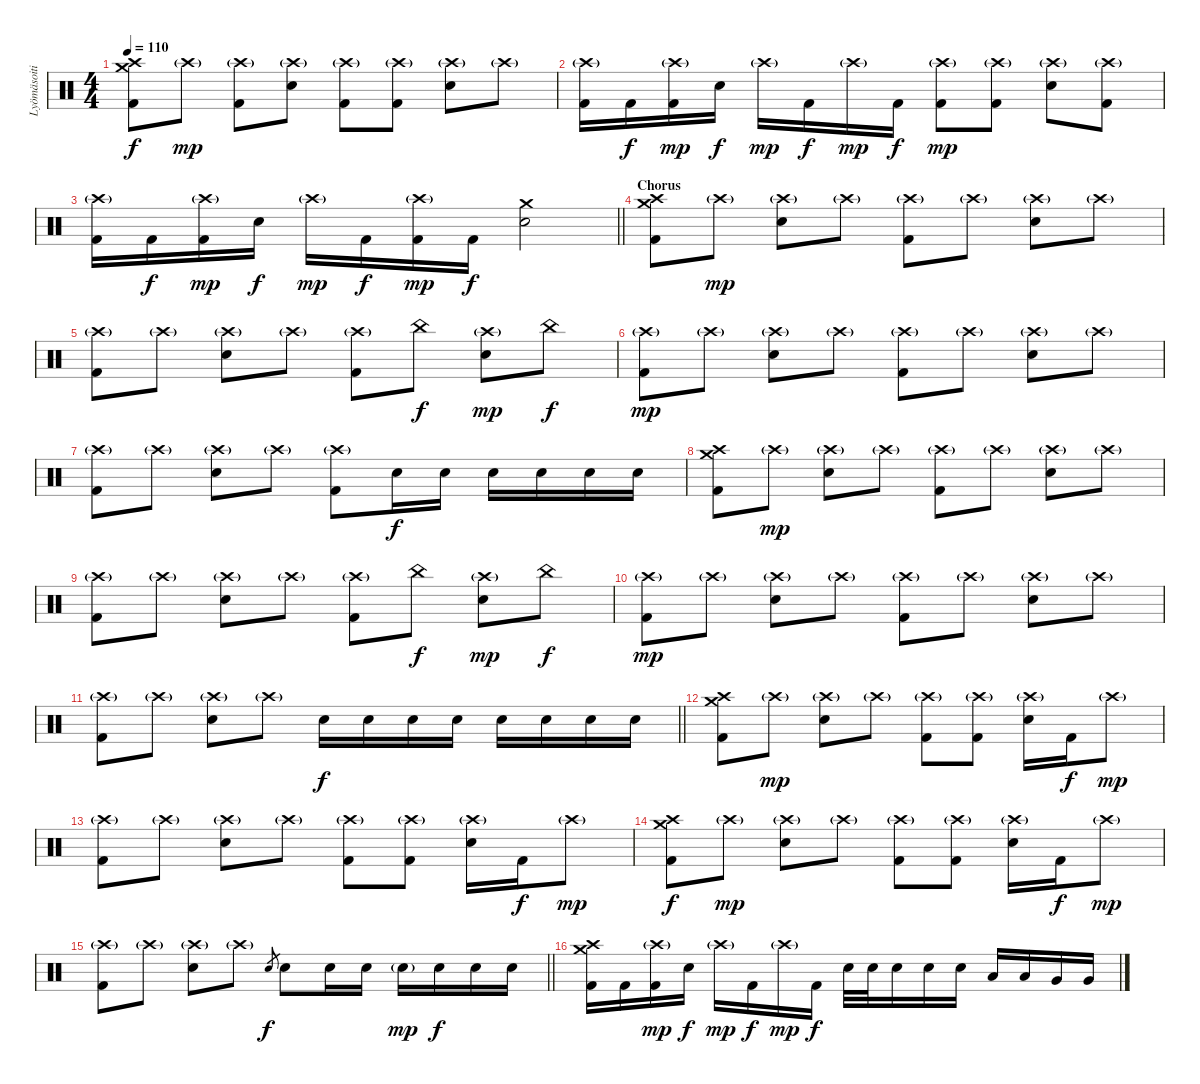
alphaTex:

\track ("Lyömäsoitin" "Lyömäsoiti") {instrument percussion}
\staff {score}
\articulation defaults
\ts (4 4)
\tempo 110
\clef neutral
\ks c
("Crash medium (hit)" "Crash high (hit)" "Kick (hit) 2").8{dy f} "Crash high (hit)"{g}.8{dy mp} ("Crash high (hit)"{g} "Kick (hit) 2").8 ("Crash high (hit)"{g} "Electric Snare (hit)").8 ("Crash high (hit)"{g} "Kick (hit) 2").8 ("Crash high (hit)"{g} "Kick (hit) 2").8 ("Crash high (hit)"{g} "Electric Snare (hit)").8 "Crash high (hit)"{g}.8 |
("Crash high (hit)"{g} "Kick (hit) 2").16 "Kick (hit) 2".16{dy f} ("Crash high (hit)"{g} "Kick (hit) 2").16{dy mp} "Electric Snare (hit)".16{dy f} "Crash high (hit)"{g}.16{dy mp} "Kick (hit) 2".16{dy f} "Crash high (hit)"{g}.16{dy mp} "Kick (hit) 2".16{dy f} ("Crash high (hit)"{g} "Kick (hit) 2").8{dy mp} ("Crash high (hit)"{g} "Kick (hit) 2").8 ("Crash high (hit)"{g} "Electric Snare (hit)").8 ("Crash high (hit)"{g} "Kick (hit) 2").8 |
\barLineRight lightlight
("Crash high (hit)"{g} "Kick (hit) 2").16 "Kick (hit) 2".16{dy f} ("Crash high (hit)"{g} "Kick (hit) 2").16{dy mp} "Electric Snare (hit)".16{dy f} "Crash high (hit)"{g}.16{dy mp} "Kick (hit) 2".16{dy f} ("Crash high (hit)"{g} "Kick (hit) 2").16{dy mp} "Kick (hit) 2".16{dy f} ("Crash medium (hit)" "Electric Snare (hit)").2 |
\section ("" "Chorus")
("Crash medium (hit)" "Crash high (hit)" "Kick (hit) 2").8 "Crash high (hit)"{g}.8{dy mp} ("Crash high (hit)"{g} "Electric Snare (hit)").8 "Crash high (hit)"{g}.8 ("Crash high (hit)"{g} "Kick (hit) 2").8 "Crash high (hit)"{g}.8 ("Crash high (hit)"{g} "Electric Snare (hit)").8 "Crash high (hit)"{g}.8 |
("Crash high (hit)"{g} "Kick (hit) 2").8 "Crash high (hit)"{g}.8 ("Crash high (hit)"{g} "Electric Snare (hit)").8 "Crash high (hit)"{g}.8 ("Crash high (hit)"{g} "Kick (hit) 2").8 "China (hit)".8{dy f} ("Crash high (hit)"{g} "Electric Snare (hit)").8{dy mp} "China (hit)".8{dy f} |
("Crash high (hit)"{g} "Kick (hit) 2").8{dy mp} "Crash high (hit)"{g}.8 ("Crash high (hit)"{g} "Electric Snare (hit)").8 "Crash high (hit)"{g}.8 ("Crash high (hit)"{g} "Kick (hit) 2").8 "Crash high (hit)"{g}.8 ("Crash high (hit)"{g} "Electric Snare (hit)").8 "Crash high (hit)"{g}.8 |
("Crash high (hit)"{g} "Kick (hit) 2").8 "Crash high (hit)"{g}.8 ("Crash high (hit)"{g} "Electric Snare (hit)").8 "Crash high (hit)"{g}.8 ("Crash high (hit)"{g} "Kick (hit) 2").8 "Electric Snare (hit)".16{dy f} "Electric Snare (hit)".16 "Electric Snare (hit)".16 "Electric Snare (hit)".16 "Electric Snare (hit)".16 "Electric Snare (hit)".16 |
("Crash medium (hit)" "Crash high (hit)" "Kick (hit) 2").8 "Crash high (hit)"{g}.8{dy mp} ("Crash high (hit)"{g} "Electric Snare (hit)").8 "Crash high (hit)"{g}.8 ("Crash high (hit)"{g} "Kick (hit) 2").8 "Crash high (hit)"{g}.8 ("Crash high (hit)"{g} "Electric Snare (hit)").8 "Crash high (hit)"{g}.8 |
("Crash high (hit)"{g} "Kick (hit) 2").8 "Crash high (hit)"{g}.8 ("Crash high (hit)"{g} "Electric Snare (hit)").8 "Crash high (hit)"{g}.8 ("Crash high (hit)"{g} "Kick (hit) 2").8 "China (hit)".8{dy f} ("Crash high (hit)"{g} "Electric Snare (hit)").8{dy mp} "China (hit)".8{dy f} |
("Crash high (hit)"{g} "Kick (hit) 2").8{dy mp} "Crash high (hit)"{g}.8 ("Crash high (hit)"{g} "Electric Snare (hit)").8 "Crash high (hit)"{g}.8 ("Crash high (hit)"{g} "Kick (hit) 2").8 "Crash high (hit)"{g}.8 ("Crash high (hit)"{g} "Electric Snare (hit)").8 "Crash high (hit)"{g}.8 |
\barLineRight lightlight
("Crash high (hit)"{g} "Kick (hit) 2").8 "Crash high (hit)"{g}.8 ("Crash high (hit)"{g} "Electric Snare (hit)").8 "Crash high (hit)"{g}.8 "Electric Snare (hit)".16{dy f} "Electric Snare (hit)".16 "Electric Snare (hit)".16 "Electric Snare (hit)".16 "Electric Snare (hit)".16 "Electric Snare (hit)".16 "Electric Snare (hit)".16 "Electric Snare (hit)".16 |
\section ("" "")
("Crash medium (hit)" "Crash high (hit)" "Kick (hit) 2").8 "Crash high (hit)"{g}.8{dy mp} ("Crash high (hit)"{g} "Electric Snare (hit)").8 "Crash high (hit)"{g}.8 ("Crash high (hit)"{g} "Kick (hit) 2").8 ("Crash high (hit)"{g} "Kick (hit) 2").8 ("Crash high (hit)"{g} "Electric Snare (hit)").16 "Kick (hit) 2".16{dy f} "Crash high (hit)"{g}.8{dy mp} |
("Crash high (hit)"{g} "Kick (hit) 2").8 "Crash high (hit)"{g}.8 ("Crash high (hit)"{g} "Electric Snare (hit)").8 "Crash high (hit)"{g}.8 ("Crash high (hit)"{g} "Kick (hit) 2").8 ("Crash high (hit)"{g} "Kick (hit) 2").8 ("Crash high (hit)"{g} "Electric Snare (hit)").16 "Kick (hit) 2".16{dy f} "Crash high (hit)"{g}.8{dy mp} |
("Crash medium (hit)" "Crash high (hit)" "Kick (hit) 2").8{dy f} "Crash high (hit)"{g}.8{dy mp} ("Crash high (hit)"{g} "Electric Snare (hit)").8 "Crash high (hit)"{g}.8 ("Crash high (hit)"{g} "Kick (hit) 2").8 ("Crash high (hit)"{g} "Kick (hit) 2").8 ("Crash high (hit)"{g} "Electric Snare (hit)").16 "Kick (hit) 2".16{dy f} "Crash high (hit)"{g}.8{dy mp} |
\barLineRight lightlight
("Crash high (hit)"{g} "Kick (hit) 2").8 "Crash high (hit)"{g}.8 ("Crash high (hit)"{g} "Electric Snare (hit)").8 "Crash high (hit)"{g}.8 "Electric Snare (hit)".8{gr dy f} "Electric Snare (hit)".8 "Electric Snare (hit)".16 "Electric Snare (hit)".16 "Electric Snare (hit)"{g}.16{dy mp} "Electric Snare (hit)".16{dy f} "Electric Snare (hit)".16 "Electric Snare (hit)".16 |
\section ("" "")
("Crash medium (hit)" "Crash high (hit)" "Kick (hit) 2").16 "Kick (hit) 2".16 ("Crash high (hit)"{g} "Kick (hit) 2").16{dy mp} "Electric Snare (hit)".16{dy f} "Crash high (hit)"{g}.16{dy mp} "Kick (hit) 2".16{dy f} "Crash high (hit)"{g}.16{dy mp} "Kick (hit) 2".16{dy f} "Electric Snare (hit)".32 "Electric Snare (hit)".32 "Electric Snare (hit)".16 "Electric Snare (hit)".16 "Electric Snare (hit)".16 "Low Tom (hit)".16 "Low Tom (hit)".16 "Very Low Tom (hit)".16 "Very Low Tom (hit)".16
